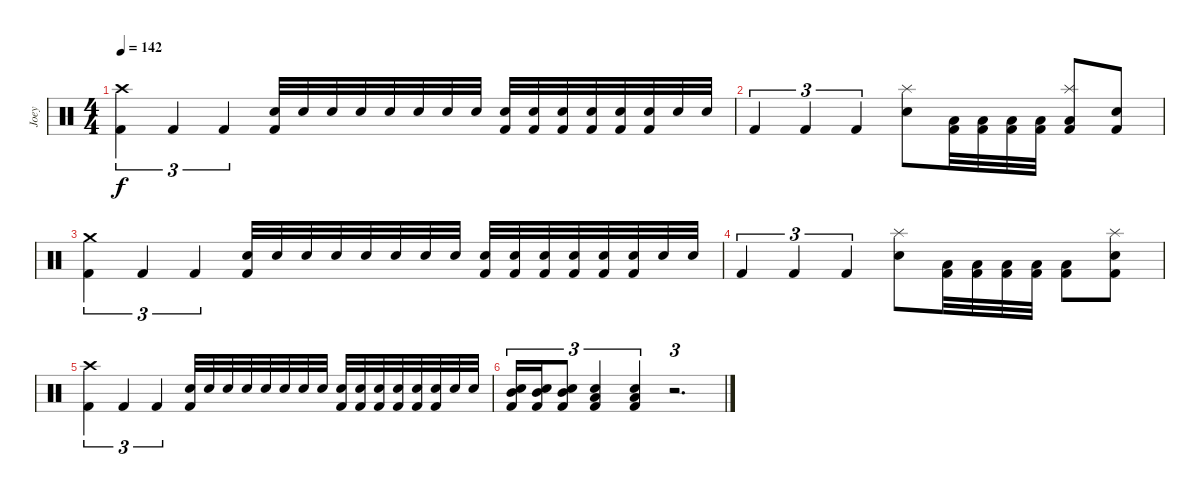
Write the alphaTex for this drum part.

\track ("Joey" "Joey") {instrument percussion}
\staff {score}
\articulation defaults
\ts (4 4)
\tempo 142
\clef neutral
\ks c
("Crash high (hit)" "Kick (hit) 2").4{tu (3 2) dy f} "Kick (hit) 2".4{tu (3 2)} "Kick (hit) 2".4{tu (3 2)} ("Snare (hit) 2" "Kick (hit) 2").32{volume 8} "Snare (hit) 2".32 "Snare (hit) 2".32 "Snare (hit) 2".32 "Snare (hit) 2".32 "Snare (hit) 2".32 "Snare (hit) 2".32 "Snare (hit) 2".32 ("Snare (hit) 2" "Kick (hit) 2").32 ("Snare (hit) 2" "Kick (hit) 2").32 ("Snare (hit) 2" "Kick (hit) 2").32 ("Snare (hit) 2" "Kick (hit) 2").32 ("Snare (hit) 2" "Kick (hit) 2").32 ("Snare (hit) 2" "Kick (hit) 2").32 "Snare (hit) 2".32 "Snare (hit) 2".32 |
"Kick (hit) 2".4{tu (3 2) volume 16} "Kick (hit) 2".4{tu (3 2)} "Kick (hit) 2".4{tu (3 2)} ("Splash (hit)" "Snare (hit) 2").8 ("Low Tom (hit)" "Kick (hit) 2").32 ("Low Tom (hit)" "Kick (hit) 2").32 ("Low Tom (hit)" "Kick (hit) 2").32 ("Low Tom (hit)" "Kick (hit) 2").32 ("Splash (hit)" "Low Tom (hit)" "Kick (hit) 2").8 ("Snare (hit) 2" "Kick (hit) 2").8 |
("Crash medium (hit)" "Kick (hit) 2").4{tu (3 2)} "Kick (hit) 2".4{tu (3 2)} "Kick (hit) 2".4{tu (3 2)} ("Snare (hit) 2" "Kick (hit) 2").32{volume 8} "Snare (hit) 2".32 "Snare (hit) 2".32 "Snare (hit) 2".32 "Snare (hit) 2".32 "Snare (hit) 2".32 "Snare (hit) 2".32 "Snare (hit) 2".32 ("Snare (hit) 2" "Kick (hit) 2").32 ("Snare (hit) 2" "Kick (hit) 2").32 ("Snare (hit) 2" "Kick (hit) 2").32 ("Snare (hit) 2" "Kick (hit) 2").32 ("Snare (hit) 2" "Kick (hit) 2").32 ("Snare (hit) 2" "Kick (hit) 2").32 "Snare (hit) 2".32 "Snare (hit) 2".32 |
"Kick (hit) 2".4{tu (3 2) volume 16} "Kick (hit) 2".4{tu (3 2)} "Kick (hit) 2".4{tu (3 2)} ("Splash (hit)" "Snare (hit) 2").8 ("Low Tom (hit)" "Kick (hit) 2").32 ("Low Tom (hit)" "Kick (hit) 2").32 ("Low Tom (hit)" "Kick (hit) 2").32 ("Low Tom (hit)" "Kick (hit) 2").32 ("Low Tom (hit)" "Kick (hit) 2").8 ("Splash (hit)" "Snare (hit) 2" "Kick (hit) 2").8 |
("Crash high (hit)" "Kick (hit) 2").4{tu (3 2)} "Kick (hit) 2".4{tu (3 2)} "Kick (hit) 2".4{tu (3 2)} ("Snare (hit) 2" "Kick (hit) 2").32{volume 8} "Snare (hit) 2".32 "Snare (hit) 2".32 "Snare (hit) 2".32 "Snare (hit) 2".32 "Snare (hit) 2".32 "Snare (hit) 2".32 "Snare (hit) 2".32 ("Snare (hit) 2" "Kick (hit) 2").32 ("Snare (hit) 2" "Kick (hit) 2").32 ("Snare (hit) 2" "Kick (hit) 2").32 ("Snare (hit) 2" "Kick (hit) 2").32 ("Snare (hit) 2" "Kick (hit) 2").32 ("Snare (hit) 2" "Kick (hit) 2").32 "Snare (hit) 2".32 "Snare (hit) 2".32 |
("Snare (hit) 2" "Mid Tom (hit)" "Kick (hit) 2").16{tu (3 2) volume 16} ("Snare (hit) 2" "Mid Tom (hit)" "Kick (hit) 2").16{tu (3 2)} ("Snare (hit) 2" "Mid Tom (hit)" "Kick (hit) 2").8{tu (3 2)} ("Snare (hit) 2" "Low Tom (hit)" "Kick (hit) 2").4{tu (3 2)} ("Snare (hit) 2" "Low Tom (hit)" "Kick (hit) 2").4{tu (3 2)} r.2{d tu (3 2)}
